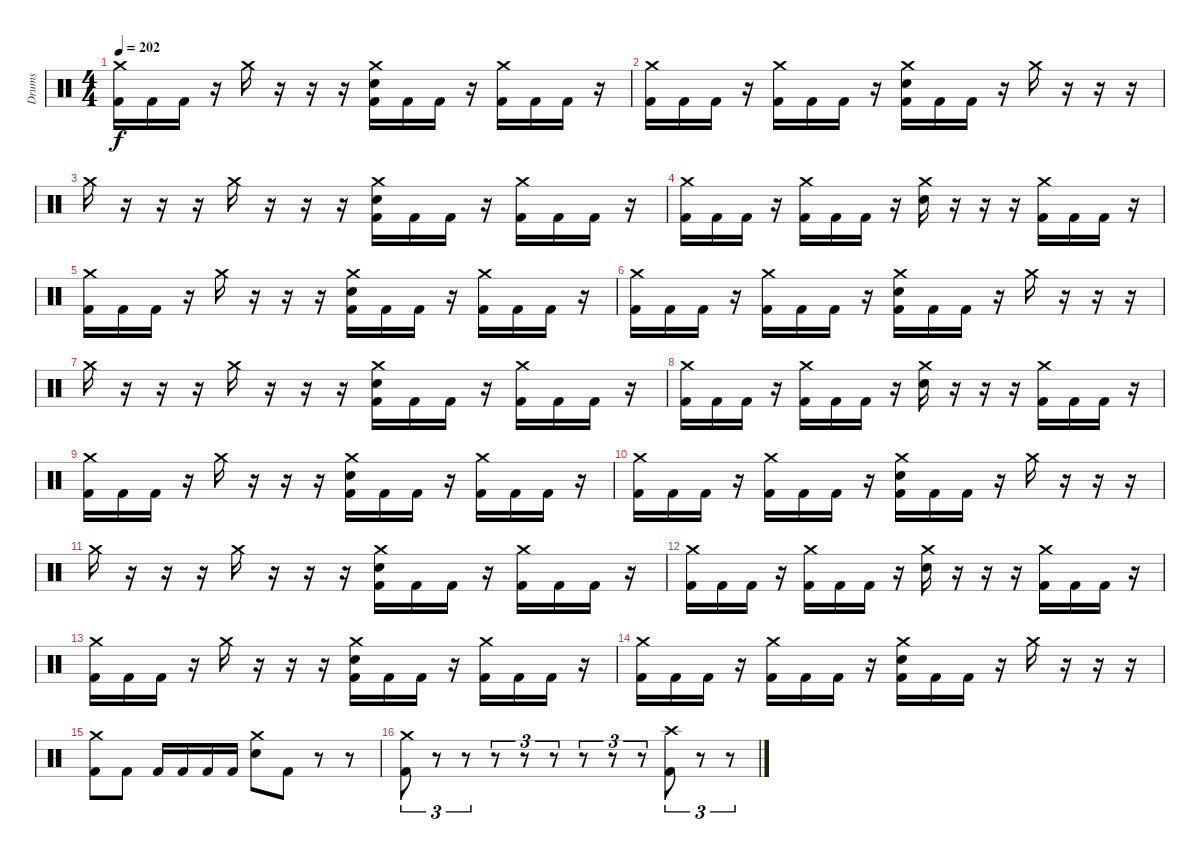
\track ("Drums" "Drums") {instrument percussion}
\staff {score}
\articulation defaults
\ts (4 4)
\tempo 202
\clef neutral
\ks c
("Crash medium (hit)" "Kick (hit) 2").16{dy f} "Kick (hit) 2".16 "Kick (hit) 2".16 r.16 "Crash medium (hit)".16 r.16 r.16 r.16 ("Crash medium (hit)" "Electric Snare (hit)" "Kick (hit) 2").16 "Kick (hit) 2".16 "Kick (hit) 2".16 r.16 ("Crash medium (hit)" "Kick (hit) 2").16 "Kick (hit) 2".16 "Kick (hit) 2".16 r.16 |
("Crash medium (hit)" "Kick (hit) 2").16 "Kick (hit) 2".16 "Kick (hit) 2".16 r.16 ("Crash medium (hit)" "Kick (hit) 2").16 "Kick (hit) 2".16 "Kick (hit) 2".16 r.16 ("Crash medium (hit)" "Electric Snare (hit)" "Kick (hit) 2").16 "Kick (hit) 2".16 "Kick (hit) 2".16 r.16 "Crash medium (hit)".16 r.16 r.16 r.16 |
"Crash medium (hit)".16 r.16 r.16 r.16 "Crash medium (hit)".16 r.16 r.16 r.16 ("Crash medium (hit)" "Electric Snare (hit)" "Kick (hit) 2").16 "Kick (hit) 2".16 "Kick (hit) 2".16 r.16 ("Crash medium (hit)" "Kick (hit) 2").16 "Kick (hit) 2".16 "Kick (hit) 2".16 r.16 |
("Crash medium (hit)" "Kick (hit) 2").16 "Kick (hit) 2".16 "Kick (hit) 2".16 r.16 ("Crash medium (hit)" "Kick (hit) 2").16 "Kick (hit) 2".16 "Kick (hit) 2".16 r.16 ("Crash medium (hit)" "Electric Snare (hit)").16 r.16 r.16 r.16 ("Crash medium (hit)" "Kick (hit) 2").16 "Kick (hit) 2".16 "Kick (hit) 2".16 r.16 |
("Crash medium (hit)" "Kick (hit) 2").16 "Kick (hit) 2".16 "Kick (hit) 2".16 r.16 "Crash medium (hit)".16 r.16 r.16 r.16 ("Crash medium (hit)" "Electric Snare (hit)" "Kick (hit) 2").16 "Kick (hit) 2".16 "Kick (hit) 2".16 r.16 ("Crash medium (hit)" "Kick (hit) 2").16 "Kick (hit) 2".16 "Kick (hit) 2".16 r.16 |
("Crash medium (hit)" "Kick (hit) 2").16 "Kick (hit) 2".16 "Kick (hit) 2".16 r.16 ("Crash medium (hit)" "Kick (hit) 2").16 "Kick (hit) 2".16 "Kick (hit) 2".16 r.16 ("Crash medium (hit)" "Electric Snare (hit)" "Kick (hit) 2").16 "Kick (hit) 2".16 "Kick (hit) 2".16 r.16 "Crash medium (hit)".16 r.16 r.16 r.16 |
"Crash medium (hit)".16 r.16 r.16 r.16 "Crash medium (hit)".16 r.16 r.16 r.16 ("Crash medium (hit)" "Electric Snare (hit)" "Kick (hit) 2").16 "Kick (hit) 2".16 "Kick (hit) 2".16 r.16 ("Crash medium (hit)" "Kick (hit) 2").16 "Kick (hit) 2".16 "Kick (hit) 2".16 r.16 |
("Crash medium (hit)" "Kick (hit) 2").16 "Kick (hit) 2".16 "Kick (hit) 2".16 r.16 ("Crash medium (hit)" "Kick (hit) 2").16 "Kick (hit) 2".16 "Kick (hit) 2".16 r.16 ("Crash medium (hit)" "Electric Snare (hit)").16 r.16 r.16 r.16 ("Crash medium (hit)" "Kick (hit) 2").16 "Kick (hit) 2".16 "Kick (hit) 2".16 r.16 |
("Crash medium (hit)" "Kick (hit) 2").16 "Kick (hit) 2".16 "Kick (hit) 2".16 r.16 "Crash medium (hit)".16 r.16 r.16 r.16 ("Crash medium (hit)" "Electric Snare (hit)" "Kick (hit) 2").16 "Kick (hit) 2".16 "Kick (hit) 2".16 r.16 ("Crash medium (hit)" "Kick (hit) 2").16 "Kick (hit) 2".16 "Kick (hit) 2".16 r.16 |
("Crash medium (hit)" "Kick (hit) 2").16 "Kick (hit) 2".16 "Kick (hit) 2".16 r.16 ("Crash medium (hit)" "Kick (hit) 2").16 "Kick (hit) 2".16 "Kick (hit) 2".16 r.16 ("Crash medium (hit)" "Electric Snare (hit)" "Kick (hit) 2").16 "Kick (hit) 2".16 "Kick (hit) 2".16 r.16 "Crash medium (hit)".16 r.16 r.16 r.16 |
"Crash medium (hit)".16 r.16 r.16 r.16 "Crash medium (hit)".16 r.16 r.16 r.16 ("Crash medium (hit)" "Electric Snare (hit)" "Kick (hit) 2").16 "Kick (hit) 2".16 "Kick (hit) 2".16 r.16 ("Crash medium (hit)" "Kick (hit) 2").16 "Kick (hit) 2".16 "Kick (hit) 2".16 r.16 |
("Crash medium (hit)" "Kick (hit) 2").16 "Kick (hit) 2".16 "Kick (hit) 2".16 r.16 ("Crash medium (hit)" "Kick (hit) 2").16 "Kick (hit) 2".16 "Kick (hit) 2".16 r.16 ("Crash medium (hit)" "Electric Snare (hit)").16 r.16 r.16 r.16 ("Crash medium (hit)" "Kick (hit) 2").16 "Kick (hit) 2".16 "Kick (hit) 2".16 r.16 |
("Crash medium (hit)" "Kick (hit) 2").16 "Kick (hit) 2".16 "Kick (hit) 2".16 r.16 "Crash medium (hit)".16 r.16 r.16 r.16 ("Crash medium (hit)" "Electric Snare (hit)" "Kick (hit) 2").16 "Kick (hit) 2".16 "Kick (hit) 2".16 r.16 ("Crash medium (hit)" "Kick (hit) 2").16 "Kick (hit) 2".16 "Kick (hit) 2".16 r.16 |
("Crash medium (hit)" "Kick (hit) 2").16 "Kick (hit) 2".16 "Kick (hit) 2".16 r.16 ("Crash medium (hit)" "Kick (hit) 2").16 "Kick (hit) 2".16 "Kick (hit) 2".16 r.16 ("Crash medium (hit)" "Electric Snare (hit)" "Kick (hit) 2").16 "Kick (hit) 2".16 "Kick (hit) 2".16 r.16 "Crash medium (hit)".16 r.16 r.16 r.16 |
("Crash medium (hit)" "Kick (hit) 2").8 "Kick (hit) 2".8 "Kick (hit) 2".16 "Kick (hit) 2".16 "Kick (hit) 2".16 "Kick (hit) 2".16 ("Crash medium (hit)" "Electric Snare (hit)").8 "Kick (hit) 2".8 r.8 r.8 |
("Crash medium (hit)" "Kick (hit) 2").8{tu (3 2)} r.8{tu (3 2)} r.8{tu (3 2)} r.8{tu (3 2)} r.8{tu (3 2)} r.8{tu (3 2)} r.8{tu (3 2)} r.8{tu (3 2)} r.8{tu (3 2)} ("Crash high (hit)" "Kick (hit) 2").8{tu (3 2)} r.8{tu (3 2)} r.8{tu (3 2)}
